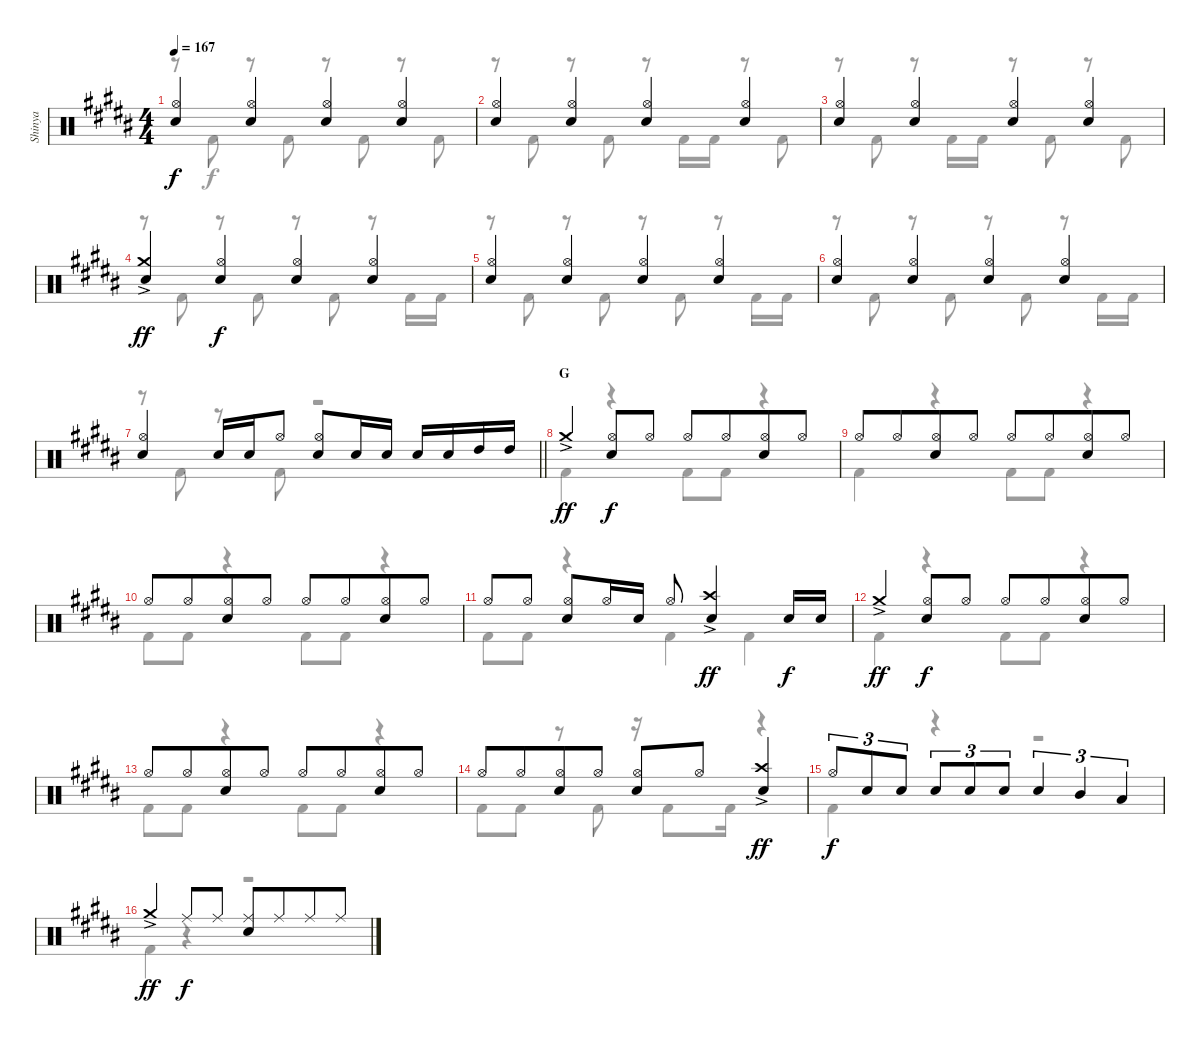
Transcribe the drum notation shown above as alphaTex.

\track ("Shinya" "Shinya") {instrument percussion}
\staff {score}
\articulation defaults
\voice
\ts (4 4)
\tempo 167
\clef neutral
\ks g#minor
("Hi-Hat (open)" "Snare (hit) 2").4{dy f} ("Hi-Hat (open)" "Snare (hit) 2").4 ("Hi-Hat (open)" "Snare (hit) 2").4 ("Hi-Hat (open)" "Snare (hit) 2").4 |
("Hi-Hat (open)" "Snare (hit) 2").4 ("Hi-Hat (open)" "Snare (hit) 2").4 ("Hi-Hat (open)" "Snare (hit) 2").4 ("Hi-Hat (open)" "Snare (hit) 2").4 |
("Hi-Hat (open)" "Snare (hit) 2").4 ("Hi-Hat (open)" "Snare (hit) 2").4 ("Hi-Hat (open)" "Snare (hit) 2").4 ("Hi-Hat (open)" "Snare (hit) 2").4 |
("Crash medium (hit)"{ac} "Snare (hit) 2").4{dy ff} ("Hi-Hat (open)" "Snare (hit) 2").4{dy f} ("Hi-Hat (open)" "Snare (hit) 2").4 ("Hi-Hat (open)" "Snare (hit) 2").4 |
("Hi-Hat (open)" "Snare (hit) 2").4 ("Hi-Hat (open)" "Snare (hit) 2").4 ("Hi-Hat (open)" "Snare (hit) 2").4 ("Hi-Hat (open)" "Snare (hit) 2").4 |
("Hi-Hat (open)" "Snare (hit) 2").4 ("Hi-Hat (open)" "Snare (hit) 2").4 ("Hi-Hat (open)" "Snare (hit) 2").4 ("Hi-Hat (open)" "Snare (hit) 2").4 |
\barLineRight lightlight
("Hi-Hat (open)" "Snare (hit) 2").4 "Snare (hit) 2".16 "Snare (hit) 2".16 "Hi-Hat (open)".8 ("Hi-Hat (open)" "Snare (hit) 2").8 "Snare (hit) 2".16 "Snare (hit) 2".16 "Snare (hit) 2".16 "Snare (hit) 2".16 "High Tom (hit)".16 "High Tom (hit)".16 |
\section ("" "G")
"Crash medium (hit)"{ac}.4{dy ff} ("Hi-Hat (open)" "Snare (hit) 2").8{dy f} "Hi-Hat (open)".8 "Hi-Hat (open)".8 "Hi-Hat (open)".8{beam merge} ("Hi-Hat (open)" "Snare (hit) 2").8 "Hi-Hat (open)".8 |
"Hi-Hat (open)".8 "Hi-Hat (open)".8{beam merge} ("Hi-Hat (open)" "Snare (hit) 2").8 "Hi-Hat (open)".8 "Hi-Hat (open)".8 "Hi-Hat (open)".8{beam merge} ("Hi-Hat (open)" "Snare (hit) 2").8 "Hi-Hat (open)".8 |
"Hi-Hat (open)".8 "Hi-Hat (open)".8{beam merge} ("Hi-Hat (open)" "Snare (hit) 2").8 "Hi-Hat (open)".8 "Hi-Hat (open)".8 "Hi-Hat (open)".8{beam merge} ("Hi-Hat (open)" "Snare (hit) 2").8 "Hi-Hat (open)".8 |
"Hi-Hat (open)".8 "Hi-Hat (open)".8 ("Hi-Hat (open)" "Snare (hit) 2").8 "Hi-Hat (open)".16 "Snare (hit) 2".16 "Hi-Hat (open)".8 ("Crash high (hit)"{ac} "Snare (hit) 2").4{dy ff} "Snare (hit) 2".16{dy f} "Snare (hit) 2".16 |
"Crash medium (hit)"{ac}.4{dy ff} ("Hi-Hat (open)" "Snare (hit) 2").8{dy f} "Hi-Hat (open)".8 "Hi-Hat (open)".8 "Hi-Hat (open)".8{beam merge} ("Hi-Hat (open)" "Snare (hit) 2").8 "Hi-Hat (open)".8 |
"Hi-Hat (open)".8 "Hi-Hat (open)".8{beam merge} ("Hi-Hat (open)" "Snare (hit) 2").8 "Hi-Hat (open)".8 "Hi-Hat (open)".8 "Hi-Hat (open)".8{beam merge} ("Hi-Hat (open)" "Snare (hit) 2").8 "Hi-Hat (open)".8 |
"Hi-Hat (open)".8 "Hi-Hat (open)".8{beam merge} ("Hi-Hat (open)" "Snare (hit) 2").8 "Hi-Hat (open)".8 ("Hi-Hat (open)" "Snare (hit) 2").8 "Hi-Hat (open)".8{beam merge} ("Crash high (hit)"{ac} "Snare (hit) 2").4{dy ff} |
"Hi-Hat (open)".8{tu (3 2) dy f} "Snare (hit) 2".8{tu (3 2)} "Snare (hit) 2".8{tu (3 2)} "Snare (hit) 2".8{tu (3 2)} "Snare (hit) 2".8{tu (3 2)} "Snare (hit) 2".8{tu (3 2)} "Snare (hit) 2".4{tu (3 2)} "Mid Tom (hit)".4{tu (3 2)} "Low Tom (hit)".4{tu (3 2)} |
"Crash medium (hit)"{ac}.4{dy ff} "Ride (middle)".8{dy f} "Ride (middle)".8 ("Ride (middle)" "Snare (hit) 2").8 "Ride (middle)".8{beam merge} "Ride (middle)".8 "Ride (middle)".8
\voice
\clef neutral
\ottava regular
\simile none
\ks g#minor
r.8{dy f} "Kick (hit) 2".8 r.8 "Kick (hit) 2".8 r.8 "Kick (hit) 2".8 r.8 "Kick (hit) 2".8 |
r.8 "Kick (hit) 2".8 r.8 "Kick (hit) 2".8 r.8 "Kick (hit) 2".16 "Kick (hit) 2".16 r.8 "Kick (hit) 2".8 |
r.8 "Kick (hit) 2".8 r.8 "Kick (hit) 2".16 "Kick (hit) 2".16 r.8 "Kick (hit) 2".8 r.8 "Kick (hit) 2".8 |
r.8 "Kick (hit) 2".8 r.8 "Kick (hit) 2".8 r.8 "Kick (hit) 2".8 r.8 "Kick (hit) 2".16 "Kick (hit) 2".16 |
r.8 "Kick (hit) 2".8 r.8 "Kick (hit) 2".8 r.8 "Kick (hit) 2".8 r.8 "Kick (hit) 2".16 "Kick (hit) 2".16 |
r.8 "Kick (hit) 2".8 r.8 "Kick (hit) 2".8 r.8 "Kick (hit) 2".8 r.8 "Kick (hit) 2".16 "Kick (hit) 2".16 |
\barLineRight lightlight
r.8 "Kick (hit) 2".8 r.8 "Kick (hit) 2".8 r.2 |
"Kick (hit) 2".4 r.4 "Kick (hit) 2".8 "Kick (hit) 2".8 r.4 |
"Kick (hit) 2".4 r.4 "Kick (hit) 2".8 "Kick (hit) 2".8 r.4 |
"Kick (hit) 2".8 "Kick (hit) 2".8 r.4 "Kick (hit) 2".8 "Kick (hit) 2".8 r.4 |
"Kick (hit) 2".8 "Kick (hit) 2".8 r.4 "Kick (hit) 2".4 "Kick (hit) 2".4 |
"Kick (hit) 2".4 r.4 "Kick (hit) 2".8 "Kick (hit) 2".8 r.4 |
"Kick (hit) 2".8 "Kick (hit) 2".8 r.4 "Kick (hit) 2".8 "Kick (hit) 2".8 r.4 |
"Kick (hit) 2".8 "Kick (hit) 2".8 r.8 "Kick (hit) 2".8 r.16 "Kick (hit) 2".8 "Kick (hit) 2".16 r.4 |
"Kick (hit) 2".4 r.4 r.2 |
"Kick (hit) 2".4 r.4 r.2
